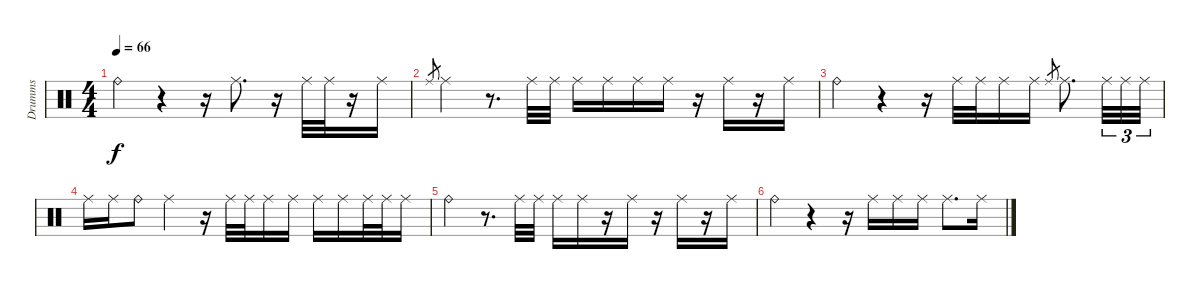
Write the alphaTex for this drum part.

\track ("Drumms" "Drumms") {instrument percussion}
\staff {score}
\articulation defaults
\ts (4 4)
\tempo 66
\clef neutral
\ks c "Ride (bell)".4{dy f}
r.4 r.16 "Ride (middle)".8{d} r.16 "Ride (middle)".32 "Ride (middle)".32 r.16 "Ride (middle)".16 |
"Ride (middle)".8{gr} "Ride (middle)".4 r.8{d} "Ride (middle)".32 "Ride (middle)".32 "Ride (middle)".16 "Ride (middle)".16 "Ride (middle)".16 "Ride (middle)".16 r.16 "Ride (middle)".16 r.16 "Ride (middle)".16 |
"Ride (bell)".4 r.4 r.16 "Ride (middle)".32 "Ride (middle)".32 "Ride (middle)".16 "Ride (middle)".16 "Ride (middle)".8{gr} "Ride (middle)".8{d} "Ride (middle)".32{tu (3 2)} "Ride (middle)".32{tu (3 2)} "Ride (middle)".32{tu (3 2)} |
"Ride (middle)".16 "Ride (middle)".16 "Ride (bell)".8 "Ride (middle)".4 r.16 "Ride (middle)".32 "Ride (middle)".32 "Ride (middle)".16 "Ride (middle)".16 "Ride (middle)".16 "Ride (middle)".16 "Ride (middle)".32 "Ride (middle)".32 "Ride (middle)".16 |
"Ride (bell)".4 r.8{d} "Ride (middle)".32 "Ride (middle)".32 "Ride (middle)".16 "Ride (middle)".16 r.16 "Ride (middle)".16 r.16 "Ride (middle)".16 r.16 "Ride (middle)".16 |
"Ride (bell)".4 r.4 r.16 "Ride (middle)".16 "Ride (middle)".16 "Ride (middle)".16 "Ride (middle)".8{d} "Ride (middle)".16
